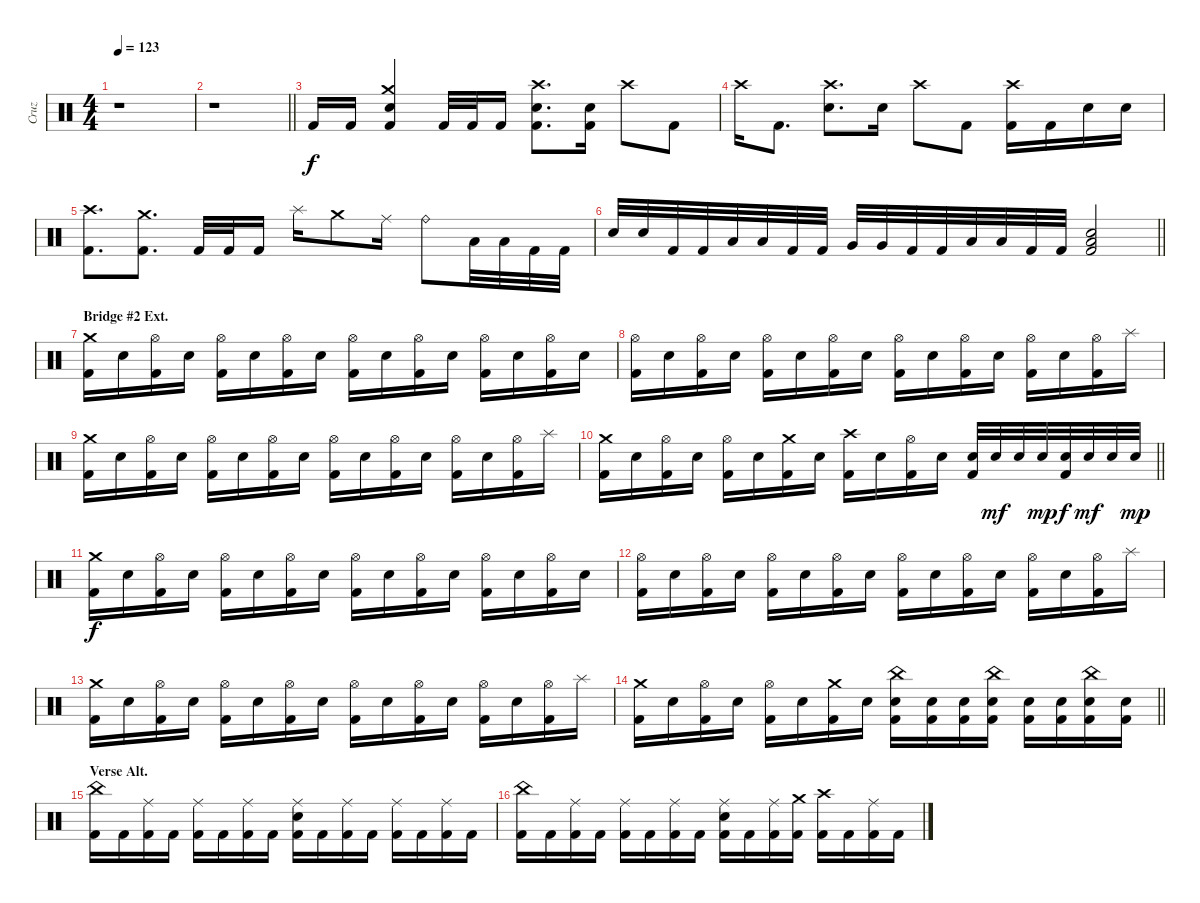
\track ("Cruz" "Cruz") {instrument percussion}
\staff {score}
\articulation defaults
\ts (4 4)
\tempo 123
\clef neutral
\ks c
r.1{dy f} |
\barLineRight lightlight
r.1 |
"Kick (hit) 2".16 "Kick (hit) 2".16 ("Crash medium (hit)" "Snare (hit) 2" "Kick (hit) 2").4 "Kick (hit) 2".32 "Kick (hit) 2".32 "Kick (hit) 2".16 ("Crash high (hit)" "Snare (hit) 2" "Kick (hit) 2").8{d} ("Snare (hit) 2" "Kick (hit) 2").16 "Crash high (hit)".8 "Kick (hit) 2".8 |
"Crash high (hit)".16 "Kick (hit) 2".8{d} ("Crash high (hit)" "Snare (hit) 2").8{d} "Snare (hit) 2".16 "Crash high (hit)".8 "Kick (hit) 2".8 ("Crash high (hit)" "Kick (hit) 2").16 "Kick (hit) 2".16 "Snare (hit) 2".16 "Snare (hit) 2".16 |
("Crash high (hit)" "Kick (hit) 2").8{d} ("Crash medium (hit)" "Kick (hit) 2").8{d} "Kick (hit) 2".32 "Kick (hit) 2".32 "Kick (hit) 2".16 "Splash (hit)".16 "Crash medium (hit)".8 "Ride (middle)".16 "Ride (bell)".8 "Low Tom (hit)".32 "Low Tom (hit)".32 "Kick (hit) 2".32 "Kick (hit) 2".32 |
\barLineRight lightlight "Snare (hit) 2".32 "Snare (hit) 2".32 "Kick (hit) 2".32 "Kick (hit) 2".32 "Low Tom (hit)".32 "Low Tom (hit)".32 "Kick (hit) 2".32 "Kick (hit) 2".32 "Very Low Tom (hit)".32 "Very Low Tom (hit)".32 "Kick (hit) 2".32 "Kick (hit) 2".32 "Low Floor Tom (hit)".32 "Low Floor Tom (hit)".32 "Kick (hit) 2".32 "Kick (hit) 2".32
("Low Floor Tom (hit)" "Snare (hit) 2" "Kick (hit) 2").2 |
\section ("" "Bridge #2 Ext.")
("Crash medium (hit)" "Kick (hit) 2").16 "Snare (hit) 2".16 ("Hi-Hat (open)" "Kick (hit) 2").16 "Snare (hit) 2".16 ("Hi-Hat (open)" "Kick (hit) 2").16 "Snare (hit) 2".16 ("Hi-Hat (open)" "Kick (hit) 2").16 "Snare (hit) 2".16 ("Hi-Hat (open)" "Kick (hit) 2").16 "Snare (hit) 2".16 ("Hi-Hat (open)" "Kick (hit) 2").16 "Snare (hit) 2".16 ("Hi-Hat (open)" "Kick (hit) 2").16 "Snare (hit) 2".16 ("Hi-Hat (open)" "Kick (hit) 2").16 "Snare (hit) 2".16 |
("Hi-Hat (open)" "Kick (hit) 2").16 "Snare (hit) 2".16 ("Hi-Hat (open)" "Kick (hit) 2").16 "Snare (hit) 2".16 ("Hi-Hat (open)" "Kick (hit) 2").16 "Snare (hit) 2".16 ("Hi-Hat (open)" "Kick (hit) 2").16 "Snare (hit) 2".16 ("Hi-Hat (open)" "Kick (hit) 2").16 "Snare (hit) 2".16 ("Hi-Hat (open)" "Kick (hit) 2").16 "Snare (hit) 2".16 ("Hi-Hat (open)" "Kick (hit) 2").16 "Snare (hit) 2".16 ("Hi-Hat (open)" "Kick (hit) 2").16 "Splash (hit)".16 |
("Crash medium (hit)" "Kick (hit) 2").16 "Snare (hit) 2".16 ("Hi-Hat (open)" "Kick (hit) 2").16 "Snare (hit) 2".16 ("Hi-Hat (open)" "Kick (hit) 2").16 "Snare (hit) 2".16 ("Hi-Hat (open)" "Kick (hit) 2").16 "Snare (hit) 2".16 ("Hi-Hat (open)" "Kick (hit) 2").16 "Snare (hit) 2".16 ("Hi-Hat (open)" "Kick (hit) 2").16 "Snare (hit) 2".16 ("Hi-Hat (open)" "Kick (hit) 2").16 "Snare (hit) 2".16 ("Hi-Hat (open)" "Kick (hit) 2").16 "Splash (hit)".16 |
\barLineRight lightlight
("Crash medium (hit)" "Kick (hit) 2").16 "Snare (hit) 2".16 ("Hi-Hat (open)" "Kick (hit) 2").16 "Snare (hit) 2".16 ("Hi-Hat (open)" "Kick (hit) 2").16 "Snare (hit) 2".16 ("Crash medium (hit)" "Kick (hit) 2").16 "Snare (hit) 2".16 ("Crash high (hit)" "Kick (hit) 2").16 "Snare (hit) 2".16 ("Hi-Hat (open)" "Kick (hit) 2").16 "Snare (hit) 2".16 ("Snare (hit) 2" "Kick (hit) 2").32 "Snare (hit) 2".32{dy mf} "Snare (hit) 2".32 "Snare (hit) 2".32{dy mp} ("Snare (hit) 2" "Kick (hit) 2").32{dy f} "Snare (hit) 2".32{dy mf} "Snare (hit) 2".32 "Snare (hit) 2".32{dy mp} |
("Crash medium (hit)" "Kick (hit) 2").16{dy f} "Snare (hit) 2".16 ("Hi-Hat (open)" "Kick (hit) 2").16 "Snare (hit) 2".16 ("Hi-Hat (open)" "Kick (hit) 2").16 "Snare (hit) 2".16 ("Hi-Hat (open)" "Kick (hit) 2").16 "Snare (hit) 2".16 ("Hi-Hat (open)" "Kick (hit) 2").16 "Snare (hit) 2".16 ("Hi-Hat (open)" "Kick (hit) 2").16 "Snare (hit) 2".16 ("Hi-Hat (open)" "Kick (hit) 2").16 "Snare (hit) 2".16 ("Hi-Hat (open)" "Kick (hit) 2").16 "Snare (hit) 2".16 |
("Hi-Hat (open)" "Kick (hit) 2").16 "Snare (hit) 2".16 ("Hi-Hat (open)" "Kick (hit) 2").16 "Snare (hit) 2".16 ("Hi-Hat (open)" "Kick (hit) 2").16 "Snare (hit) 2".16 ("Hi-Hat (open)" "Kick (hit) 2").16 "Snare (hit) 2".16 ("Hi-Hat (open)" "Kick (hit) 2").16 "Snare (hit) 2".16 ("Hi-Hat (open)" "Kick (hit) 2").16 "Snare (hit) 2".16 ("Hi-Hat (open)" "Kick (hit) 2").16 "Snare (hit) 2".16 ("Hi-Hat (open)" "Kick (hit) 2").16 "Splash (hit)".16 |
("Crash medium (hit)" "Kick (hit) 2").16 "Snare (hit) 2".16 ("Hi-Hat (open)" "Kick (hit) 2").16 "Snare (hit) 2".16 ("Hi-Hat (open)" "Kick (hit) 2").16 "Snare (hit) 2".16 ("Hi-Hat (open)" "Kick (hit) 2").16 "Snare (hit) 2".16 ("Hi-Hat (open)" "Kick (hit) 2").16 "Snare (hit) 2".16 ("Hi-Hat (open)" "Kick (hit) 2").16 "Snare (hit) 2".16 ("Hi-Hat (open)" "Kick (hit) 2").16 "Snare (hit) 2".16 ("Hi-Hat (open)" "Kick (hit) 2").16 "Splash (hit)".16 |
\barLineRight lightlight
("Crash medium (hit)" "Kick (hit) 2").16 "Snare (hit) 2".16 ("Hi-Hat (open)" "Kick (hit) 2").16 "Snare (hit) 2".16 ("Hi-Hat (open)" "Kick (hit) 2").16 "Snare (hit) 2".16 ("Crash medium (hit)" "Kick (hit) 2").16 "Snare (hit) 2".16 ("China (hit)" "Snare (hit) 2" "Kick (hit) 2").16 ("Snare (hit) 2" "Kick (hit) 2").16 ("Snare (hit) 2" "Kick (hit) 2").16 ("China (hit)" "Snare (hit) 2" "Kick (hit) 2").16 ("Snare (hit) 2" "Kick (hit) 2").16 ("Snare (hit) 2" "Kick (hit) 2").16 ("China (hit)" "Snare (hit) 2" "Kick (hit) 2").16 ("Snare (hit) 2" "Kick (hit) 2").16 |
\section ("" "Verse Alt.")
("China (hit)" "Kick (hit) 2").16 "Kick (hit) 2".16 ("Ride (middle)" "Kick (hit) 2").16 "Kick (hit) 2".16 ("Ride (middle)" "Kick (hit) 2").16 "Kick (hit) 2".16 ("Ride (middle)" "Kick (hit) 2").16 "Kick (hit) 2".16 ("Ride (middle)" "Snare (hit) 2" "Kick (hit) 2").16 "Kick (hit) 2".16 ("Ride (middle)" "Kick (hit) 2").16 "Kick (hit) 2".16 ("Ride (middle)" "Kick (hit) 2").16 "Kick (hit) 2".16 ("Ride (middle)" "Kick (hit) 2").16 "Kick (hit) 2".16 |
("China (hit)" "Kick (hit) 2").16 "Kick (hit) 2".16 ("Ride (middle)" "Kick (hit) 2").16 "Kick (hit) 2".16 ("Ride (middle)" "Kick (hit) 2").16 "Kick (hit) 2".16 ("Ride (middle)" "Kick (hit) 2").16 "Kick (hit) 2".16 ("Ride (middle)" "Snare (hit) 2" "Kick (hit) 2").16 "Kick (hit) 2".16 ("Ride (middle)" "Kick (hit) 2").16 ("Crash medium (hit)" "Kick (hit) 2").16 ("Crash high (hit)" "Kick (hit) 2").16 "Kick (hit) 2".16 ("Ride (middle)" "Kick (hit) 2").16 "Kick (hit) 2".16
